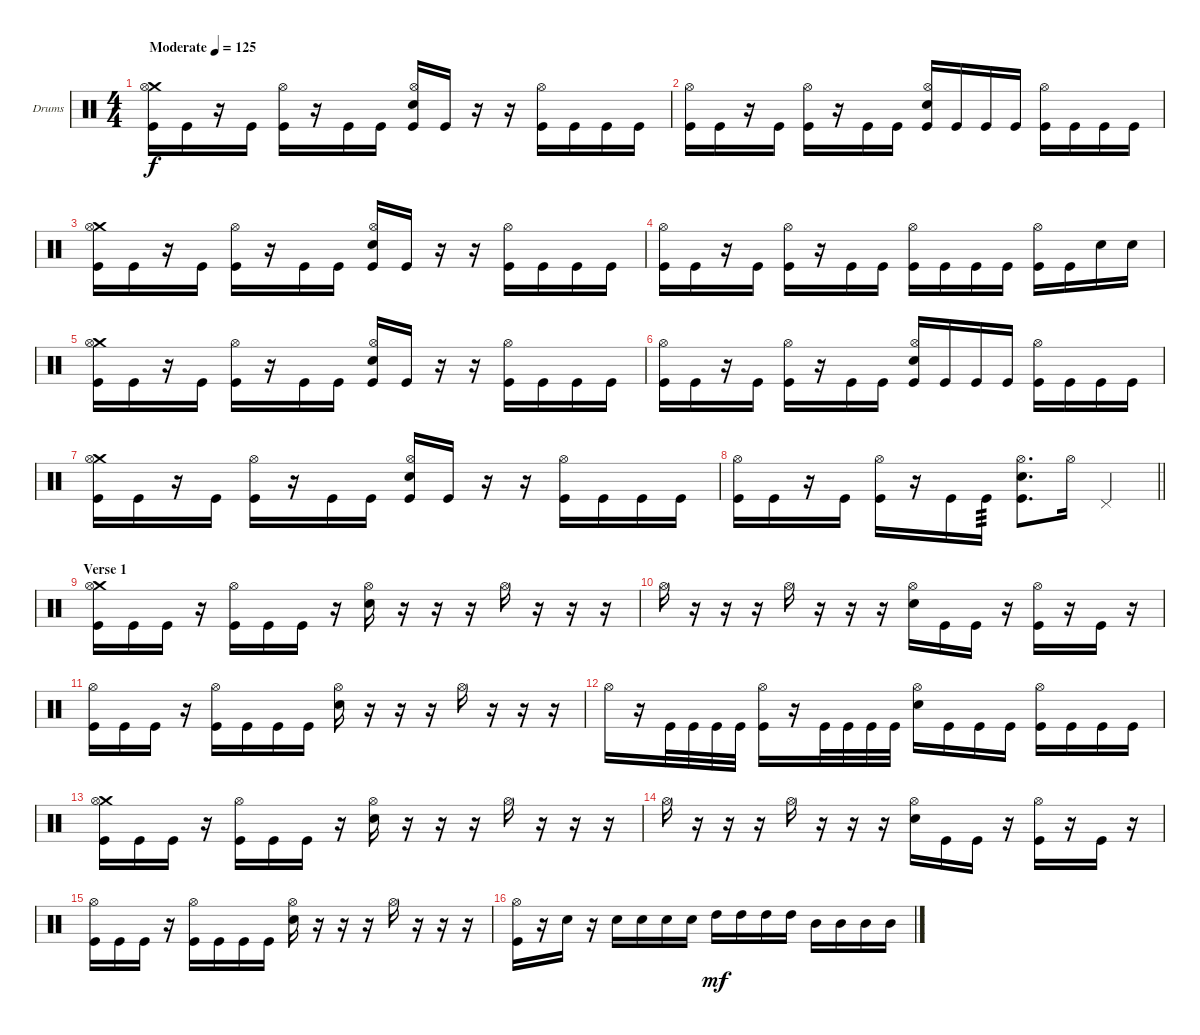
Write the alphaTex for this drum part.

\bracketExtendMode groupsimilarinstruments
\firstSystemTrackNameOrientation horizontal
\otherSystemsTrackNameOrientation horizontal
\track ("Drumkit" "Drums") {instrument percussion}
\staff {score}
\articulation defaults
\ts (4 4)
\beaming (8 2 2 2 2)
\section ("" "")
\tempo (125 "Moderate")
\clef neutral
\ks c
("Crash medium (hit)" "Kick (hit)" "Hi-Hat (open)").16{dy f} "Kick (hit)".16 r.16 "Kick (hit)".16 ("Kick (hit)" "Hi-Hat (open)").16 r.16 "Kick (hit)".16 "Kick (hit)".16 ("Snare (hit) 2" "Kick (hit)" "Hi-Hat (open)").16 "Kick (hit)".16 r.16 r.16 ("Kick (hit)" "Hi-Hat (open)").16 "Kick (hit)".16 "Kick (hit)".16 "Kick (hit)".16 |
("Kick (hit)" "Hi-Hat (open)").16 "Kick (hit)".16 r.16 "Kick (hit)".16 ("Kick (hit)" "Hi-Hat (open)").16 r.16 "Kick (hit)".16 "Kick (hit)".16 ("Snare (hit) 2" "Kick (hit)" "Hi-Hat (open)").16 "Kick (hit)".16 "Kick (hit)".16 "Kick (hit)".16 ("Kick (hit)" "Hi-Hat (open)").16 "Kick (hit)".16 "Kick (hit)".16 "Kick (hit)".16 |
("Crash medium (hit)" "Kick (hit)" "Hi-Hat (open)").16 "Kick (hit)".16 r.16 "Kick (hit)".16 ("Kick (hit)" "Hi-Hat (open)").16 r.16 "Kick (hit)".16 "Kick (hit)".16 ("Snare (hit) 2" "Kick (hit)" "Hi-Hat (open)").16 "Kick (hit)".16 r.16 r.16 ("Kick (hit)" "Hi-Hat (open)").16 "Kick (hit)".16 "Kick (hit)".16 "Kick (hit)".16 |
("Kick (hit)" "Hi-Hat (open)").16 "Kick (hit)".16 r.16 "Kick (hit)".16 ("Kick (hit)" "Hi-Hat (open)").16 r.16 "Kick (hit)".16 "Kick (hit)".16 ("Kick (hit)" "Hi-Hat (open)").16 "Kick (hit)".16 "Kick (hit)".16 "Kick (hit)".16 ("Kick (hit)" "Hi-Hat (open)").16 "Kick (hit)".16 "Snare (hit) 2".16 "Snare (hit) 2".16 |
("Crash medium (hit)" "Kick (hit)" "Hi-Hat (open)").16 "Kick (hit)".16 r.16 "Kick (hit)".16 ("Kick (hit)" "Hi-Hat (open)").16 r.16 "Kick (hit)".16 "Kick (hit)".16 ("Snare (hit) 2" "Kick (hit)" "Hi-Hat (open)").16 "Kick (hit)".16 r.16 r.16 ("Kick (hit)" "Hi-Hat (open)").16 "Kick (hit)".16 "Kick (hit)".16 "Kick (hit)".16 |
("Kick (hit)" "Hi-Hat (open)").16 "Kick (hit)".16 r.16 "Kick (hit)".16 ("Kick (hit)" "Hi-Hat (open)").16 r.16 "Kick (hit)".16 "Kick (hit)".16 ("Snare (hit) 2" "Kick (hit)" "Hi-Hat (open)").16 "Kick (hit)".16 "Kick (hit)".16 "Kick (hit)".16 ("Kick (hit)" "Hi-Hat (open)").16 "Kick (hit)".16 "Kick (hit)".16 "Kick (hit)".16 |
("Crash medium (hit)" "Kick (hit)" "Hi-Hat (open)").16 "Kick (hit)".16 r.16 "Kick (hit)".16 ("Kick (hit)" "Hi-Hat (open)").16 r.16 "Kick (hit)".16 "Kick (hit)".16 ("Snare (hit) 2" "Kick (hit)" "Hi-Hat (open)").16 "Kick (hit)".16 r.16 r.16 ("Kick (hit)" "Hi-Hat (open)").16 "Kick (hit)".16 "Kick (hit)".16 "Kick (hit)".16 |
\barLineRight lightlight
("Kick (hit)" "Hi-Hat (open)").16 "Kick (hit)".16 r.16 "Kick (hit)".16 ("Kick (hit)" "Hi-Hat (open)").16 r.16 "Kick (hit)".16 "Kick (hit)".16{tp 3} ("Snare (hit) 2" "Kick (hit)" "Hi-Hat (open)").8{d} "Hi-Hat (open)".16 "Pedal Hi-Hat (hit)".4 |
\section ("" "Verse 1")
("Crash medium (hit)" "Kick (hit)" "Hi-Hat (open)").16 "Kick (hit)".16 "Kick (hit)".16 r.16 ("Kick (hit)" "Hi-Hat (open)").16 "Kick (hit)".16 "Kick (hit)".16 r.16 ("Snare (hit) 2" "Hi-Hat (open)").16 r.16 r.16 r.16 "Hi-Hat (open)".16 r.16 r.16 r.16 |
"Hi-Hat (open)".16 r.16 r.16 r.16 "Hi-Hat (open)".16 r.16 r.16 r.16 ("Snare (hit) 2" "Hi-Hat (open)").16 "Kick (hit)".16 "Kick (hit)".16 r.16 ("Kick (hit)" "Hi-Hat (open)").16 r.16 "Kick (hit)".16 r.16 |
("Kick (hit)" "Hi-Hat (open)").16 "Kick (hit)".16 "Kick (hit)".16 r.16 ("Kick (hit)" "Hi-Hat (open)").16 "Kick (hit)".16 "Kick (hit)".16 "Kick (hit)".16 ("Snare (hit) 2" "Hi-Hat (open)").16 r.16 r.16 r.16 "Hi-Hat (open)".16 r.16 r.16 r.16 |
"Hi-Hat (open)".16 r.16 "Kick (hit)".32 "Kick (hit)".32 "Kick (hit)".32 "Kick (hit)".32 ("Kick (hit)" "Hi-Hat (open)").16 r.16 "Kick (hit)".32 "Kick (hit)".32 "Kick (hit)".32 "Kick (hit)".32 ("Snare (hit) 2" "Hi-Hat (open)").16 "Kick (hit)".16 "Kick (hit)".16 "Kick (hit)".16 ("Kick (hit)" "Hi-Hat (open)").16 "Kick (hit)".16 "Kick (hit)".16 "Kick (hit)".16 |
("Crash medium (hit)" "Kick (hit)" "Hi-Hat (open)").16 "Kick (hit)".16 "Kick (hit)".16 r.16 ("Kick (hit)" "Hi-Hat (open)").16 "Kick (hit)".16 "Kick (hit)".16 r.16 ("Snare (hit) 2" "Hi-Hat (open)").16 r.16 r.16 r.16 "Hi-Hat (open)".16 r.16 r.16 r.16 |
"Hi-Hat (open)".16 r.16 r.16 r.16 "Hi-Hat (open)".16 r.16 r.16 r.16 ("Snare (hit) 2" "Hi-Hat (open)").16 "Kick (hit)".16 "Kick (hit)".16 r.16 ("Kick (hit)" "Hi-Hat (open)").16 r.16 "Kick (hit)".16 r.16 |
("Kick (hit)" "Hi-Hat (open)").16 "Kick (hit)".16 "Kick (hit)".16 r.16 ("Kick (hit)" "Hi-Hat (open)").16 "Kick (hit)".16 "Kick (hit)".16 "Kick (hit)".16 ("Snare (hit) 2" "Hi-Hat (open)").16 r.16 r.16 r.16 "Hi-Hat (open)".16 r.16 r.16 r.16 |
("Kick (hit)" "Hi-Hat (open)").16 r.16 "Snare (hit) 2".16 r.16 "Snare (hit) 2".16 "Snare (hit) 2".16 "Snare (hit) 2".16 "Snare (hit) 2".16 "High Tom (hit)".16{dy mf} "High Tom (hit)".16 "High Tom (hit)".16 "High Tom (hit)".16 "Mid Tom (hit)".16 "Mid Tom (hit)".16 "Mid Tom (hit)".16 "Mid Tom (hit)".16
